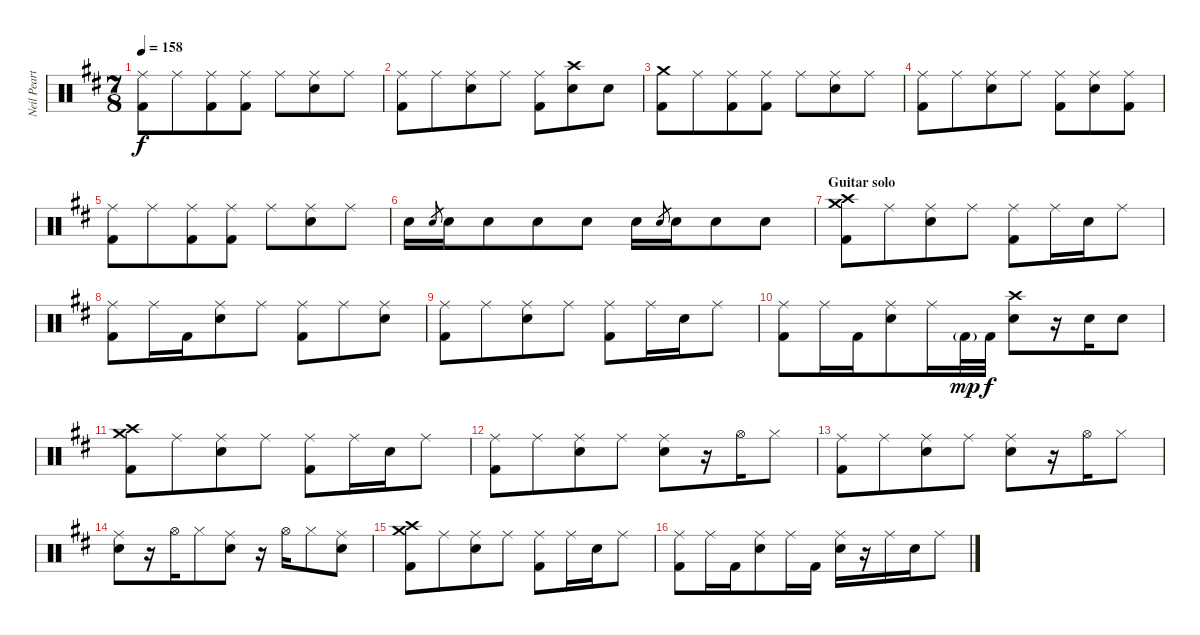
\track ("Neil Peart (drums)" "Neil Peart") {instrument percussion}
\staff {score}
\articulation defaults
\ts (7 8)
\tempo 158
\clef neutral
\ks bminor
("Ride (middle)" "Kick (hit) 2").8{dy f} "Ride (middle)".8 ("Ride (middle)" "Kick (hit) 2").8 ("Ride (middle)" "Kick (hit) 2").8 "Ride (middle)".8 ("Ride (middle)" "Electric Snare (hit)").8 "Ride (middle)".8 |
("Ride (middle)" "Kick (hit) 2").8 "Ride (middle)".8 ("Ride (middle)" "Electric Snare (hit)").8 "Ride (middle)".8 ("Ride (middle)" "Kick (hit) 2").8 ("Crash high (hit)" "Electric Snare (hit)").8 "Electric Snare (hit)".8 |
("Crash medium (hit)" "Kick (hit) 2").8 "Ride (middle)".8 ("Ride (middle)" "Kick (hit) 2").8 ("Ride (middle)" "Kick (hit) 2").8 "Ride (middle)".8 ("Ride (middle)" "Electric Snare (hit)").8 "Ride (middle)".8 |
("Ride (middle)" "Kick (hit) 2").8 "Ride (middle)".8 ("Ride (middle)" "Electric Snare (hit)").8 "Ride (middle)".8 ("Ride (middle)" "Kick (hit) 2").8 ("Ride (middle)" "Electric Snare (hit)").8 ("Ride (middle)" "Kick (hit) 2").8 |
("Ride (middle)" "Kick (hit) 2").8 "Ride (middle)".8 ("Ride (middle)" "Kick (hit) 2").8 ("Ride (middle)" "Kick (hit) 2").8 "Ride (middle)".8 ("Ride (middle)" "Electric Snare (hit)").8 "Ride (middle)".8 |
"Electric Snare (hit)".16 "Electric Snare (hit)".8{gr} "Electric Snare (hit)".16 "Electric Snare (hit)".8 "Electric Snare (hit)".8 "Electric Snare (hit)".8 "Electric Snare (hit)".16 "Electric Snare (hit)".8{gr} "Electric Snare (hit)".16 "Electric Snare (hit)".8 "Electric Snare (hit)".8 |
\section ("" "Guitar solo")
("Crash medium (hit)" "Crash high (hit)" "Kick (hit) 2").8 "Ride (middle)".8 ("Ride (middle)" "Electric Snare (hit)").8 "Ride (middle)".8 ("Ride (middle)" "Kick (hit) 2").8 "Ride (middle)".16 "Electric Snare (hit)".16 "Ride (middle)".8 |
("Ride (middle)" "Kick (hit) 2").8 "Ride (middle)".16 "Kick (hit) 2".16 ("Ride (middle)" "Electric Snare (hit)").8 "Ride (middle)".8 ("Ride (middle)" "Kick (hit) 2").8 "Ride (middle)".8 ("Ride (middle)" "Electric Snare (hit)").8 |
("Ride (middle)" "Kick (hit) 2").8 "Ride (middle)".8 ("Ride (middle)" "Electric Snare (hit)").8 "Ride (middle)".8 ("Ride (middle)" "Kick (hit) 2").8 "Ride (middle)".16 "Electric Snare (hit)".16 "Ride (middle)".8 |
("Ride (middle)" "Kick (hit) 2").8 "Ride (middle)".16 "Kick (hit) 2".16 ("Ride (middle)" "Electric Snare (hit)").8 "Ride (middle)".16 "Kick (hit) 2"{g}.32{dy mp} "Kick (hit) 2".32{dy f} ("Crash high (hit)" "Electric Snare (hit)").8 r.16 "Electric Snare (hit)".16 "Electric Snare (hit)".8 |
("Crash medium (hit)" "Crash high (hit)" "Kick (hit) 2").8 "Ride (middle)".8 ("Ride (middle)" "Electric Snare (hit)").8 "Ride (middle)".8 ("Ride (middle)" "Kick (hit) 2").8 "Ride (middle)".16 "Electric Snare (hit)".16 "Ride (middle)".8 |
("Ride (middle)" "Kick (hit) 2").8 "Ride (middle)".8 ("Ride (middle)" "Electric Snare (hit)").8 "Ride (middle)".8 ("Ride (middle)" "Electric Snare (hit)").8 r.16 "Hi-Hat (open)".16 "Hi-Hat (closed)".8 |
("Ride (middle)" "Kick (hit) 2").8 "Ride (middle)".8 ("Ride (middle)" "Electric Snare (hit)").8 "Ride (middle)".8 ("Ride (middle)" "Electric Snare (hit)").8 r.16 "Hi-Hat (open)".16 "Hi-Hat (closed)".8 |
("Ride (middle)" "Electric Snare (hit)").8 r.16 "Hi-Hat (open)".16 "Hi-Hat (closed)".8 ("Ride (middle)" "Electric Snare (hit)").8 r.16 "Hi-Hat (open)".16 "Hi-Hat (closed)".8 ("Ride (middle)" "Electric Snare (hit)").8 |
("Crash medium (hit)" "Crash high (hit)" "Kick (hit) 2").8 "Ride (middle)".8 ("Ride (middle)" "Electric Snare (hit)").8 "Ride (middle)".8 ("Ride (middle)" "Kick (hit) 2").8 "Ride (middle)".16 "Electric Snare (hit)".16 "Ride (middle)".8 |
("Ride (middle)" "Kick (hit) 2").8 "Ride (middle)".16 "Kick (hit) 2".16 ("Ride (middle)" "Electric Snare (hit)").8 "Ride (middle)".16 "Kick (hit) 2".16 ("Ride (middle)" "Electric Snare (hit)").16 r.16 "Ride (middle)".16 "Electric Snare (hit)".16 "Ride (middle)".8
